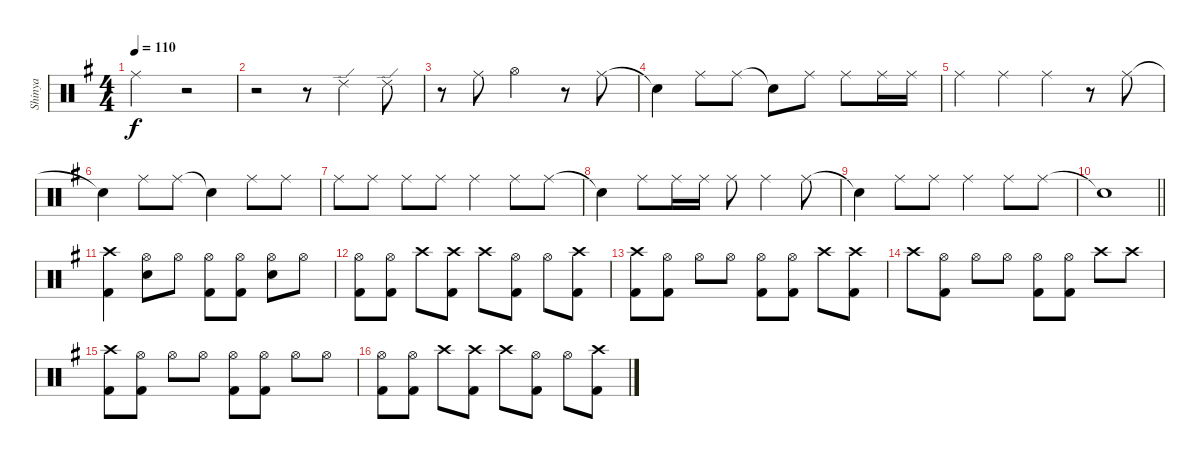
\track ("Shinya" "Shinya") {instrument percussion}
\staff {score}
\articulation defaults
\ts (4 4)
\tempo 110
\clef neutral
\ks g "Ride (middle)"{t}.2{dy f}
r.2 |
r.2 r.8 "Ride (edge) 2".4 "Ride (edge) 2".8 |
r.8 "Ride (middle)".8 "Hi-Hat (open)".2 r.8 "Ride (middle)".8 |
"Snare (hit)"{t}.4 "Ride (middle)".8 "Ride (middle)".8 "Snare (hit)"{t}.8 "Ride (middle)".8 "Ride (middle)".8 "Ride (middle)".16 "Ride (middle)".16 |
"Ride (middle)".4 "Ride (middle)".4 "Ride (middle)".4 r.8 "Ride (middle)".8 |
"Snare (hit)"{t}.4 "Ride (middle)".8 "Ride (middle)".8 "Snare (hit)"{t}.4 "Ride (middle)".8 "Ride (middle)".8 |
"Ride (middle)".8 "Ride (middle)".8 "Ride (middle)".8 "Ride (middle)".8 "Ride (middle)".4 "Ride (middle)".8 "Ride (middle)".8 |
"Snare (hit)"{t}.4 "Ride (middle)".8 "Ride (middle)".16 "Ride (middle)".16 "Ride (middle)".8 "Ride (middle)".4 "Ride (middle)".8 |
"Snare (hit)"{t}.4 "Ride (middle)".8 "Ride (middle)".8 "Ride (middle)".4 "Ride (middle)".8 "Ride (middle)".8 |
\barLineRight lightlight "Snare (hit)"{t}.1
|
("Crash high (hit)" "Kick (hit) 2").4 ("Hi-Hat (open)" "Electric Snare (hit)").8 "Hi-Hat (open)".8 ("Hi-Hat (open)" "Kick (hit) 2").8 ("Hi-Hat (open)" "Kick (hit) 2").8 ("Hi-Hat (open)" "Electric Snare (hit)").8 "Hi-Hat (open)".8 |
("Hi-Hat (open)" "Kick (hit) 2").8 ("Hi-Hat (open)" "Kick (hit) 2").8 "Crash high (hit)".8 ("Crash high (hit)" "Kick (hit) 2").8 "Crash high (hit)".8 ("Hi-Hat (open)" "Kick (hit) 2").8 "Hi-Hat (open)".8 ("Crash high (hit)" "Kick (hit) 2").8 |
("Crash high (hit)" "Kick (hit) 2").8 ("Hi-Hat (open)" "Kick (hit) 2").8 "Hi-Hat (open)".8 "Hi-Hat (open)".8 ("Hi-Hat (open)" "Kick (hit) 2").8 ("Hi-Hat (open)" "Kick (hit) 2").8 "Crash high (hit)".8 ("Crash high (hit)" "Kick (hit) 2").8 |
"Crash high (hit)".8 ("Hi-Hat (open)" "Kick (hit) 2").8 "Hi-Hat (open)".8 "Hi-Hat (open)".8 ("Hi-Hat (open)" "Kick (hit) 2").8 ("Hi-Hat (open)" "Kick (hit) 2").8 "Crash high (hit)".8 "Crash high (hit)".8 |
("Crash high (hit)" "Kick (hit) 2").8 ("Hi-Hat (open)" "Kick (hit) 2").8 "Hi-Hat (open)".8 "Hi-Hat (open)".8 ("Hi-Hat (open)" "Kick (hit) 2").8 ("Hi-Hat (open)" "Kick (hit) 2").8 "Hi-Hat (open)".8 "Hi-Hat (open)".8 |
("Hi-Hat (open)" "Kick (hit) 2").8 ("Hi-Hat (open)" "Kick (hit) 2").8 "Crash high (hit)".8 ("Crash high (hit)" "Kick (hit) 2").8 "Crash high (hit)".8 ("Hi-Hat (open)" "Kick (hit) 2").8 "Hi-Hat (open)".8 ("Crash high (hit)" "Kick (hit) 2").8
